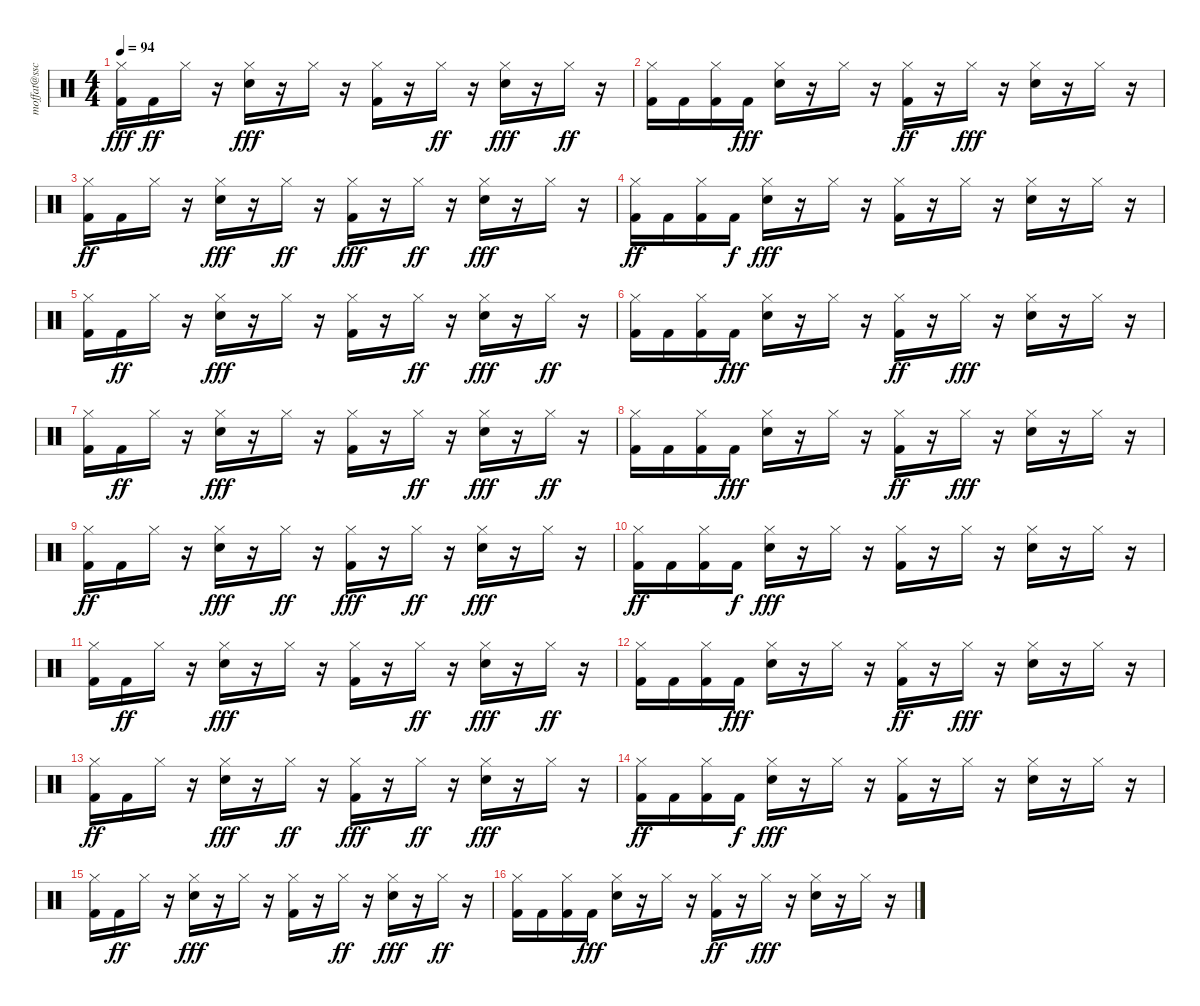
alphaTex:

\track ("moffat@sscl." "moffat@ssc") {instrument percussion}
\staff {score}
\articulation defaults
\ts (4 4)
\tempo 94
\clef neutral
\ks c
("Kick (hit) 2" "Hi-Hat (closed)").16{dy fff} "Kick (hit) 2".16{dy ff} "Hi-Hat (closed)".16 r.16 ("Snare (hit) 2" "Hi-Hat (closed)").16{dy fff} r.16 "Hi-Hat (closed)".16 r.16 ("Kick (hit) 2" "Hi-Hat (closed)").16 r.16 "Hi-Hat (closed)".16{dy ff} r.16 ("Snare (hit) 2" "Hi-Hat (closed)").16{dy fff} r.16 "Hi-Hat (closed)".16{dy ff} r.16 |
("Hi-Hat (closed)" "Kick (hit) 2").16 "Kick (hit) 2".16 ("Hi-Hat (closed)" "Kick (hit) 2").16 "Kick (hit) 2".16{dy fff} ("Hi-Hat (closed)" "Snare (hit) 2").16 r.16 "Hi-Hat (closed)".16 r.16 ("Hi-Hat (closed)" "Kick (hit) 2").16{dy ff} r.16 "Hi-Hat (closed)".16{dy fff} r.16 ("Hi-Hat (closed)" "Snare (hit) 2").16 r.16 "Hi-Hat (closed)".16 r.16 |
("Kick (hit) 2" "Hi-Hat (closed)").16{dy ff} "Kick (hit) 2".16 "Hi-Hat (closed)".16 r.16 ("Hi-Hat (closed)" "Snare (hit) 2").16{dy fff} r.16 "Hi-Hat (closed)".16{dy ff} r.16 ("Kick (hit) 2" "Hi-Hat (closed)").16{dy fff} r.16 "Hi-Hat (closed)".16{dy ff} r.16 ("Snare (hit) 2" "Hi-Hat (closed)").16{dy fff} r.16 "Hi-Hat (closed)".16 r.16 |
("Hi-Hat (closed)" "Kick (hit) 2").16{dy ff} "Kick (hit) 2".16 ("Hi-Hat (closed)" "Kick (hit) 2").16 "Kick (hit) 2".16{dy f} ("Hi-Hat (closed)" "Snare (hit) 2").16{dy fff} r.16 "Hi-Hat (closed)".16 r.16 ("Hi-Hat (closed)" "Kick (hit) 2").16 r.16 "Hi-Hat (closed)".16 r.16 ("Snare (hit) 2" "Hi-Hat (closed)").16 r.16 "Hi-Hat (closed)".16 r.16 |
("Kick (hit) 2" "Hi-Hat (closed)").16 "Kick (hit) 2".16{dy ff} "Hi-Hat (closed)".16 r.16 ("Snare (hit) 2" "Hi-Hat (closed)").16{dy fff} r.16 "Hi-Hat (closed)".16 r.16 ("Kick (hit) 2" "Hi-Hat (closed)").16 r.16 "Hi-Hat (closed)".16{dy ff} r.16 ("Snare (hit) 2" "Hi-Hat (closed)").16{dy fff} r.16 "Hi-Hat (closed)".16{dy ff} r.16 |
("Hi-Hat (closed)" "Kick (hit) 2").16 "Kick (hit) 2".16 ("Hi-Hat (closed)" "Kick (hit) 2").16 "Kick (hit) 2".16{dy fff} ("Hi-Hat (closed)" "Snare (hit) 2").16 r.16 "Hi-Hat (closed)".16 r.16 ("Hi-Hat (closed)" "Kick (hit) 2").16{dy ff} r.16 "Hi-Hat (closed)".16{dy fff} r.16 ("Hi-Hat (closed)" "Snare (hit) 2").16 r.16 "Hi-Hat (closed)".16 r.16 |
("Kick (hit) 2" "Hi-Hat (closed)").16 "Kick (hit) 2".16{dy ff} "Hi-Hat (closed)".16 r.16 ("Snare (hit) 2" "Hi-Hat (closed)").16{dy fff} r.16 "Hi-Hat (closed)".16 r.16 ("Kick (hit) 2" "Hi-Hat (closed)").16 r.16 "Hi-Hat (closed)".16{dy ff} r.16 ("Snare (hit) 2" "Hi-Hat (closed)").16{dy fff} r.16 "Hi-Hat (closed)".16{dy ff} r.16 |
("Hi-Hat (closed)" "Kick (hit) 2").16 "Kick (hit) 2".16 ("Hi-Hat (closed)" "Kick (hit) 2").16 "Kick (hit) 2".16{dy fff} ("Hi-Hat (closed)" "Snare (hit) 2").16 r.16 "Hi-Hat (closed)".16 r.16 ("Hi-Hat (closed)" "Kick (hit) 2").16{dy ff} r.16 "Hi-Hat (closed)".16{dy fff} r.16 ("Hi-Hat (closed)" "Snare (hit) 2").16 r.16 "Hi-Hat (closed)".16 r.16 |
("Kick (hit) 2" "Hi-Hat (closed)").16{dy ff} "Kick (hit) 2".16 "Hi-Hat (closed)".16 r.16 ("Hi-Hat (closed)" "Snare (hit) 2").16{dy fff} r.16 "Hi-Hat (closed)".16{dy ff} r.16 ("Kick (hit) 2" "Hi-Hat (closed)").16{dy fff} r.16 "Hi-Hat (closed)".16{dy ff} r.16 ("Snare (hit) 2" "Hi-Hat (closed)").16{dy fff} r.16 "Hi-Hat (closed)".16 r.16 |
("Hi-Hat (closed)" "Kick (hit) 2").16{dy ff} "Kick (hit) 2".16 ("Hi-Hat (closed)" "Kick (hit) 2").16 "Kick (hit) 2".16{dy f} ("Hi-Hat (closed)" "Snare (hit) 2").16{dy fff} r.16 "Hi-Hat (closed)".16 r.16 ("Hi-Hat (closed)" "Kick (hit) 2").16 r.16 "Hi-Hat (closed)".16 r.16 ("Snare (hit) 2" "Hi-Hat (closed)").16 r.16 "Hi-Hat (closed)".16 r.16 |
("Kick (hit) 2" "Hi-Hat (closed)").16 "Kick (hit) 2".16{dy ff} "Hi-Hat (closed)".16 r.16 ("Snare (hit) 2" "Hi-Hat (closed)").16{dy fff} r.16 "Hi-Hat (closed)".16 r.16 ("Kick (hit) 2" "Hi-Hat (closed)").16 r.16 "Hi-Hat (closed)".16{dy ff} r.16 ("Snare (hit) 2" "Hi-Hat (closed)").16{dy fff} r.16 "Hi-Hat (closed)".16{dy ff} r.16 |
("Hi-Hat (closed)" "Kick (hit) 2").16 "Kick (hit) 2".16 ("Hi-Hat (closed)" "Kick (hit) 2").16 "Kick (hit) 2".16{dy fff} ("Hi-Hat (closed)" "Snare (hit) 2").16 r.16 "Hi-Hat (closed)".16 r.16 ("Hi-Hat (closed)" "Kick (hit) 2").16{dy ff} r.16 "Hi-Hat (closed)".16{dy fff} r.16 ("Hi-Hat (closed)" "Snare (hit) 2").16 r.16 "Hi-Hat (closed)".16 r.16 |
("Kick (hit) 2" "Hi-Hat (closed)").16{dy ff} "Kick (hit) 2".16 "Hi-Hat (closed)".16 r.16 ("Hi-Hat (closed)" "Snare (hit) 2").16{dy fff} r.16 "Hi-Hat (closed)".16{dy ff} r.16 ("Kick (hit) 2" "Hi-Hat (closed)").16{dy fff} r.16 "Hi-Hat (closed)".16{dy ff} r.16 ("Snare (hit) 2" "Hi-Hat (closed)").16{dy fff} r.16 "Hi-Hat (closed)".16 r.16 |
("Hi-Hat (closed)" "Kick (hit) 2").16{dy ff} "Kick (hit) 2".16 ("Hi-Hat (closed)" "Kick (hit) 2").16 "Kick (hit) 2".16{dy f} ("Hi-Hat (closed)" "Snare (hit) 2").16{dy fff} r.16 "Hi-Hat (closed)".16 r.16 ("Hi-Hat (closed)" "Kick (hit) 2").16 r.16 "Hi-Hat (closed)".16 r.16 ("Snare (hit) 2" "Hi-Hat (closed)").16 r.16 "Hi-Hat (closed)".16 r.16 |
("Kick (hit) 2" "Hi-Hat (closed)").16 "Kick (hit) 2".16{dy ff} "Hi-Hat (closed)".16 r.16 ("Snare (hit) 2" "Hi-Hat (closed)").16{dy fff} r.16 "Hi-Hat (closed)".16 r.16 ("Kick (hit) 2" "Hi-Hat (closed)").16 r.16 "Hi-Hat (closed)".16{dy ff} r.16 ("Snare (hit) 2" "Hi-Hat (closed)").16{dy fff} r.16 "Hi-Hat (closed)".16{dy ff} r.16 |
("Hi-Hat (closed)" "Kick (hit) 2").16 "Kick (hit) 2".16 ("Hi-Hat (closed)" "Kick (hit) 2").16 "Kick (hit) 2".16{dy fff} ("Hi-Hat (closed)" "Snare (hit) 2").16 r.16 "Hi-Hat (closed)".16 r.16 ("Hi-Hat (closed)" "Kick (hit) 2").16{dy ff} r.16 "Hi-Hat (closed)".16{dy fff} r.16 ("Hi-Hat (closed)" "Snare (hit) 2").16 r.16 "Hi-Hat (closed)".16 r.16
